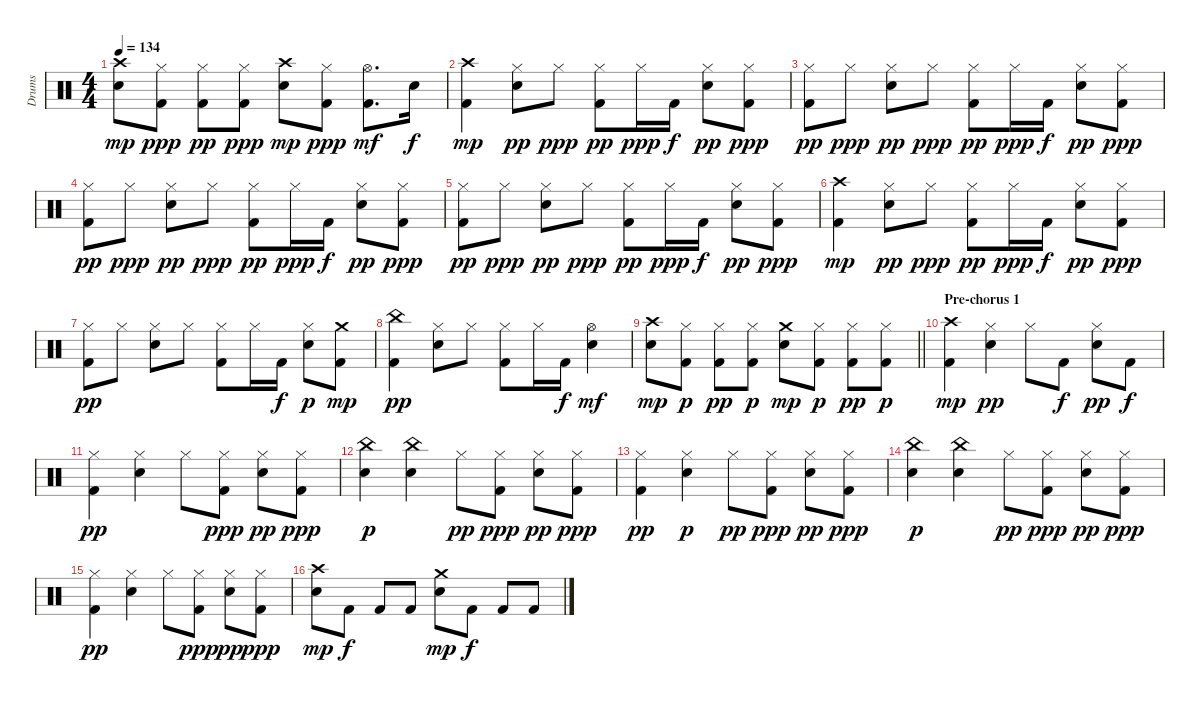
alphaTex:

\track ("Drums" "Drums") {instrument percussion}
\staff {score}
\articulation defaults
\ts (4 4)
\tempo 134
\clef neutral
\ks aminor
("Electric Snare (hit)" "Crash high (hit)").8{dy mp} ("Kick (hit) 2" "Hi-Hat (closed)").8{dy ppp} ("Kick (hit) 2" "Hi-Hat (closed)").8{dy pp} ("Kick (hit) 2" "Hi-Hat (closed)").8{dy ppp} ("Electric Snare (hit)" "Crash high (hit)").8{dy mp} ("Kick (hit) 2" "Hi-Hat (closed)").8{dy ppp} ("Kick (hit) 2" "Hi-Hat (open)").8{d dy mf} "Electric Snare (hit)".16{dy f} |
("Kick (hit) 2" "Crash high (hit)").4{dy mp} ("Electric Snare (hit)" "Hi-Hat (closed)").8{dy pp} "Hi-Hat (closed)".8{dy ppp} ("Kick (hit) 2" "Hi-Hat (closed)").8{dy pp} "Hi-Hat (closed)".16{dy ppp} "Kick (hit) 2".16{dy f} ("Electric Snare (hit)" "Hi-Hat (closed)").8{dy pp} ("Kick (hit) 2" "Hi-Hat (closed)").8{dy ppp} |
("Kick (hit) 2" "Hi-Hat (closed)").8{dy pp} "Hi-Hat (closed)".8{dy ppp} ("Electric Snare (hit)" "Hi-Hat (closed)").8{dy pp} "Hi-Hat (closed)".8{dy ppp} ("Kick (hit) 2" "Hi-Hat (closed)").8{dy pp} "Hi-Hat (closed)".16{dy ppp} "Kick (hit) 2".16{dy f} ("Electric Snare (hit)" "Hi-Hat (closed)").8{dy pp} ("Kick (hit) 2" "Hi-Hat (closed)").8{dy ppp} |
("Kick (hit) 2" "Hi-Hat (closed)").8{dy pp} "Hi-Hat (closed)".8{dy ppp} ("Electric Snare (hit)" "Hi-Hat (closed)").8{dy pp} "Hi-Hat (closed)".8{dy ppp} ("Kick (hit) 2" "Hi-Hat (closed)").8{dy pp} "Hi-Hat (closed)".16{dy ppp} "Kick (hit) 2".16{dy f} ("Electric Snare (hit)" "Hi-Hat (closed)").8{dy pp} ("Kick (hit) 2" "Hi-Hat (closed)").8{dy ppp} |
("Kick (hit) 2" "Hi-Hat (closed)").8{dy pp} "Hi-Hat (closed)".8{dy ppp} ("Electric Snare (hit)" "Hi-Hat (closed)").8{dy pp} "Hi-Hat (closed)".8{dy ppp} ("Kick (hit) 2" "Hi-Hat (closed)").8{dy pp} "Hi-Hat (closed)".16{dy ppp} "Kick (hit) 2".16{dy f} ("Electric Snare (hit)" "Hi-Hat (closed)").8{dy pp} ("Kick (hit) 2" "Hi-Hat (closed)").8{dy ppp} |
("Kick (hit) 2" "Crash high (hit)").4{dy mp} ("Electric Snare (hit)" "Hi-Hat (closed)").8{dy pp} "Hi-Hat (closed)".8{dy ppp} ("Kick (hit) 2" "Hi-Hat (closed)").8{dy pp} "Hi-Hat (closed)".16{dy ppp} "Kick (hit) 2".16{dy f} ("Electric Snare (hit)" "Hi-Hat (closed)").8{dy pp} ("Kick (hit) 2" "Hi-Hat (closed)").8{dy ppp} |
("Kick (hit) 2" "Hi-Hat (closed)").8{dy pp} "Hi-Hat (closed)".8 ("Electric Snare (hit)" "Hi-Hat (closed)").8 "Hi-Hat (closed)".8 ("Kick (hit) 2" "Hi-Hat (closed)").8 "Hi-Hat (closed)".16 "Kick (hit) 2".16{dy f} ("Electric Snare (hit)" "Hi-Hat (closed)").8{dy p} ("Kick (hit) 2" "Crash medium (hit)").8{dy mp} |
("Kick (hit) 2" "China (hit)").4{dy pp} ("Electric Snare (hit)" "Hi-Hat (closed)").8 "Hi-Hat (closed)".8 ("Kick (hit) 2" "Hi-Hat (closed)").8 "Hi-Hat (closed)".16 "Kick (hit) 2".16{dy f} ("Electric Snare (hit)" "Hi-Hat (open)").4{dy mf} |
\barLineRight lightlight
("Electric Snare (hit)" "Crash high (hit)").8{dy mp} ("Kick (hit) 2" "Hi-Hat (closed)").8{dy p} ("Kick (hit) 2" "Hi-Hat (closed)").8{dy pp} ("Kick (hit) 2" "Hi-Hat (closed)").8{dy p} ("Electric Snare (hit)" "Crash medium (hit)").8{dy mp} ("Kick (hit) 2" "Hi-Hat (closed)").8{dy p} ("Kick (hit) 2" "Hi-Hat (closed)").8{dy pp} ("Kick (hit) 2" "Hi-Hat (closed)").8{dy p} |
\section ("" "Pre-chorus 1")
("Crash high (hit)" "Kick (hit) 2").4{dy mp} ("Hi-Hat (closed)" "Electric Snare (hit)").4{dy pp} "Hi-Hat (closed)".8 "Kick (hit) 2".8{dy f} ("Electric Snare (hit)" "Hi-Hat (closed)").8{dy pp} "Kick (hit) 2".8{dy f} |
("Hi-Hat (closed)" "Kick (hit) 2").4{dy pp} ("Hi-Hat (closed)" "Electric Snare (hit)").4 "Hi-Hat (closed)".8 ("Kick (hit) 2" "Hi-Hat (closed)").8{dy ppp} ("Electric Snare (hit)" "Hi-Hat (closed)").8{dy pp} ("Kick (hit) 2" "Hi-Hat (closed)").8{dy ppp} |
("Electric Snare (hit)" "China (hit)").4{dy p} ("Electric Snare (hit)" "China (hit)").4 "Hi-Hat (closed)".8{dy pp} ("Kick (hit) 2" "Hi-Hat (closed)").8{dy ppp} ("Electric Snare (hit)" "Hi-Hat (closed)").8{dy pp} ("Kick (hit) 2" "Hi-Hat (closed)").8{dy ppp} |
("Hi-Hat (closed)" "Kick (hit) 2").4{dy pp} ("Hi-Hat (closed)" "Electric Snare (hit)").4{dy p} "Hi-Hat (closed)".8{dy pp} ("Kick (hit) 2" "Hi-Hat (closed)").8{dy ppp} ("Electric Snare (hit)" "Hi-Hat (closed)").8{dy pp} ("Kick (hit) 2" "Hi-Hat (closed)").8{dy ppp} |
("Electric Snare (hit)" "China (hit)").4{dy p} ("Electric Snare (hit)" "China (hit)").4 "Hi-Hat (closed)".8{dy pp} ("Kick (hit) 2" "Hi-Hat (closed)").8{dy ppp} ("Electric Snare (hit)" "Hi-Hat (closed)").8{dy pp} ("Kick (hit) 2" "Hi-Hat (closed)").8{dy ppp} |
("Hi-Hat (closed)" "Kick (hit) 2").4{dy pp} ("Hi-Hat (closed)" "Electric Snare (hit)").4 "Hi-Hat (closed)".8 ("Kick (hit) 2" "Hi-Hat (closed)").8{dy ppp} ("Electric Snare (hit)" "Hi-Hat (closed)").8{dy pp} ("Kick (hit) 2" "Hi-Hat (closed)").8{dy ppp} |
("Electric Snare (hit)" "Crash high (hit)").8{dy mp} "Kick (hit) 2".8{dy f} "Kick (hit) 2".8 "Kick (hit) 2".8 ("Electric Snare (hit)" "Crash medium (hit)").8{dy mp} "Kick (hit) 2".8{dy f} "Kick (hit) 2".8 "Kick (hit) 2".8
